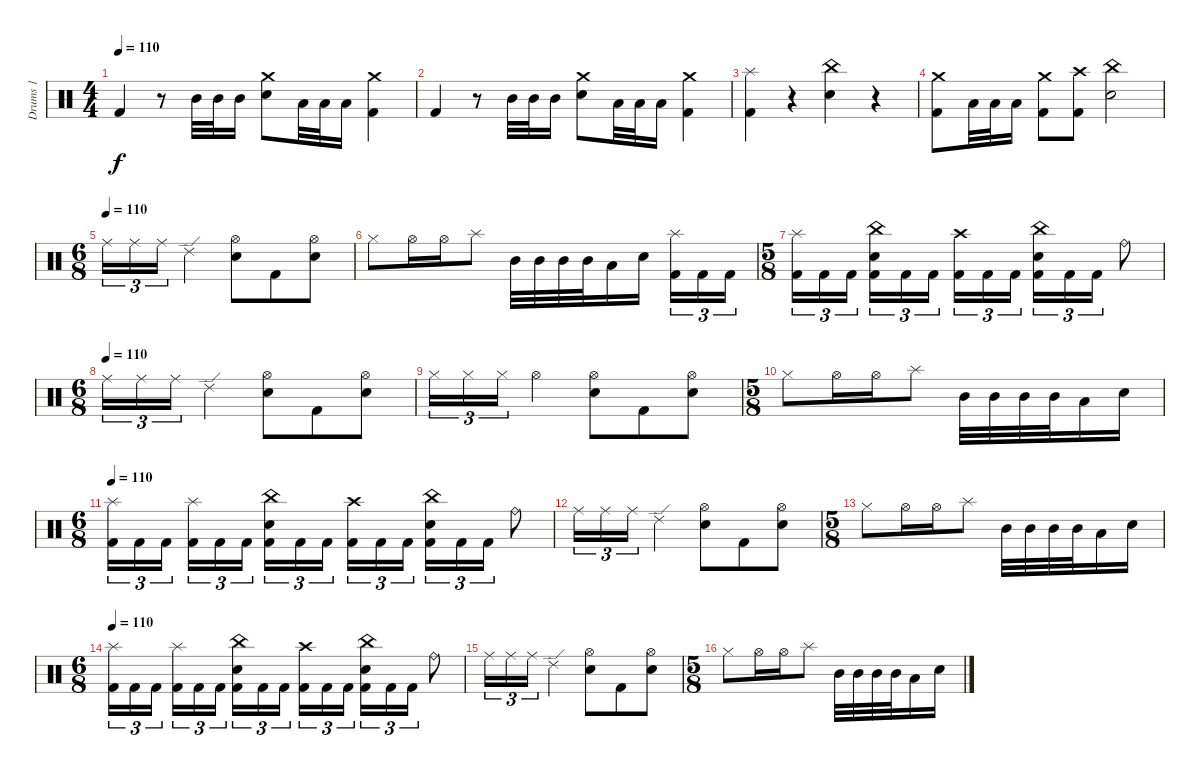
\track ("Drums 1" "Drums 1") {instrument percussion}
\staff {score}
\articulation defaults
\ts (4 4)
\tempo 110
\clef neutral
\ks c "Kick (hit) 2".4{dy f}
r.8 "Mid Tom (hit)".32 "Mid Tom (hit)".32 "Mid Tom (hit)".16 ("Crash medium (hit)" "Snare (hit) 2").8 "Low Tom (hit)".32 "Low Tom (hit)".32 "Low Tom (hit)".16 ("Crash medium (hit)" "Kick (hit) 2").4 |
"Kick (hit) 2".4 r.8 "Mid Tom (hit)".32 "Mid Tom (hit)".32 "Mid Tom (hit)".16 ("Crash medium (hit)" "Snare (hit) 2").8 "Low Tom (hit)".32 "Low Tom (hit)".32 "Low Tom (hit)".16 ("Crash medium (hit)" "Kick (hit) 2").4 |
("Splash (hit)" "Kick (hit) 2").4 r.4 ("China (hit)" "Snare (hit) 2").4 r.4 |
("Crash medium (hit)" "Kick (hit) 2").8 "Low Tom (hit)".32 "Low Tom (hit)".32 "Low Tom (hit)".16 ("Crash medium (hit)" "Kick (hit) 2").8 ("Crash high (hit)" "Kick (hit) 2").8 ("China (hit)" "Snare (hit) 2").2 |
\ts (6 8)
\tempo (110)
"Ride (middle)".16{tu (3 2)} "Ride (middle)".16{tu (3 2)} "Ride (middle)".16{tu (3 2)} "Ride (edge) 2".4 ("Hi-Hat (open)" "Snare (hit) 2").8 "Kick (hit) 2".8 ("Hi-Hat (open)" "Snare (hit) 2").8 |
"Hi-Hat (closed)".8 "Hi-Hat (open)".16 "Hi-Hat (open)".16 "Splash (hit)".8 "Mid Tom (hit)".32 "Mid Tom (hit)".32 "Mid Tom (hit)".32 "Mid Tom (hit)".32 "Low Tom (hit)".16 "Snare (hit) 2".16 ("Splash (hit)" "Kick (hit) 2").16{tu (3 2)} "Kick (hit) 2".16{tu (3 2)} "Kick (hit) 2".16{tu (3 2)} |
\ts (5 8)
("Splash (hit)" "Kick (hit) 2").16{tu (3 2)} "Kick (hit) 2".16{tu (3 2)} "Kick (hit) 2".16{tu (3 2)} ("China (hit)" "Snare (hit) 2" "Kick (hit) 2").16{tu (3 2)} "Kick (hit) 2".16{tu (3 2)} "Kick (hit) 2".16{tu (3 2)} ("Crash high (hit)" "Kick (hit) 2").16{tu (3 2)} "Kick (hit) 2".16{tu (3 2)} "Kick (hit) 2".16{tu (3 2)} ("China (hit)" "Snare (hit) 2" "Kick (hit) 2").16{tu (3 2)} "Kick (hit) 2".16{tu (3 2)} "Kick (hit) 2".16{tu (3 2)} "Ride (bell)".8 |
\ts (6 8)
\tempo (110)
"Ride (middle)".16{tu (3 2)} "Ride (middle)".16{tu (3 2)} "Ride (middle)".16{tu (3 2)} "Ride (edge) 2".4 ("Hi-Hat (open)" "Snare (hit) 2").8 "Kick (hit) 2".8 ("Hi-Hat (open)" "Snare (hit) 2").8 |
"Hi-Hat (closed)".16{tu (3 2)} "Hi-Hat (closed)".16{tu (3 2)} "Hi-Hat (closed)".16{tu (3 2)} "Hi-Hat (open)".4 ("Hi-Hat (open)" "Snare (hit) 2").8 "Kick (hit) 2".8 ("Hi-Hat (open)" "Snare (hit) 2").8 |
\ts (5 8)
"Hi-Hat (closed)".8 "Hi-Hat (open)".16 "Hi-Hat (open)".16 "Splash (hit)".8 "Mid Tom (hit)".32 "Mid Tom (hit)".32 "Mid Tom (hit)".32 "Mid Tom (hit)".32 "Low Tom (hit)".16 "Snare (hit) 2".16 |
\ts (6 8)
\tempo 110
("Splash (hit)" "Kick (hit) 2").16{tu (3 2)} "Kick (hit) 2".16{tu (3 2)} "Kick (hit) 2".16{tu (3 2)} ("Splash (hit)" "Kick (hit) 2").16{tu (3 2)} "Kick (hit) 2".16{tu (3 2)} "Kick (hit) 2".16{tu (3 2)} ("China (hit)" "Snare (hit) 2" "Kick (hit) 2").16{tu (3 2)} "Kick (hit) 2".16{tu (3 2)} "Kick (hit) 2".16{tu (3 2)} ("Crash high (hit)" "Kick (hit) 2").16{tu (3 2)} "Kick (hit) 2".16{tu (3 2)} "Kick (hit) 2".16{tu (3 2)} ("China (hit)" "Snare (hit) 2" "Kick (hit) 2").16{tu (3 2)} "Kick (hit) 2".16{tu (3 2)} "Kick (hit) 2".16{tu (3 2)} "Ride (bell)".8 |
"Ride (middle)".16{tu (3 2)} "Ride (middle)".16{tu (3 2)} "Ride (middle)".16{tu (3 2)} "Ride (edge) 2".4 ("Hi-Hat (open)" "Snare (hit) 2").8 "Kick (hit) 2".8 ("Hi-Hat (open)" "Snare (hit) 2").8 |
\ts (5 8)
"Hi-Hat (closed)".8 "Hi-Hat (open)".16 "Hi-Hat (open)".16 "Splash (hit)".8 "Mid Tom (hit)".32 "Mid Tom (hit)".32 "Mid Tom (hit)".32 "Mid Tom (hit)".32 "Low Tom (hit)".16 "Snare (hit) 2".16 |
\ts (6 8)
\tempo 110
("Splash (hit)" "Kick (hit) 2").16{tu (3 2)} "Kick (hit) 2".16{tu (3 2)} "Kick (hit) 2".16{tu (3 2)} ("Splash (hit)" "Kick (hit) 2").16{tu (3 2)} "Kick (hit) 2".16{tu (3 2)} "Kick (hit) 2".16{tu (3 2)} ("China (hit)" "Snare (hit) 2" "Kick (hit) 2").16{tu (3 2)} "Kick (hit) 2".16{tu (3 2)} "Kick (hit) 2".16{tu (3 2)} ("Crash high (hit)" "Kick (hit) 2").16{tu (3 2)} "Kick (hit) 2".16{tu (3 2)} "Kick (hit) 2".16{tu (3 2)} ("China (hit)" "Snare (hit) 2" "Kick (hit) 2").16{tu (3 2)} "Kick (hit) 2".16{tu (3 2)} "Kick (hit) 2".16{tu (3 2)} "Ride (bell)".8 |
"Ride (middle)".16{tu (3 2)} "Ride (middle)".16{tu (3 2)} "Ride (middle)".16{tu (3 2)} "Ride (edge) 2".4 ("Hi-Hat (open)" "Snare (hit) 2").8 "Kick (hit) 2".8 ("Hi-Hat (open)" "Snare (hit) 2").8 |
\ts (5 8)
"Hi-Hat (closed)".8 "Hi-Hat (open)".16 "Hi-Hat (open)".16 "Splash (hit)".8 "Mid Tom (hit)".32 "Mid Tom (hit)".32 "Mid Tom (hit)".32 "Mid Tom (hit)".32 "Low Tom (hit)".16 "Snare (hit) 2".16
